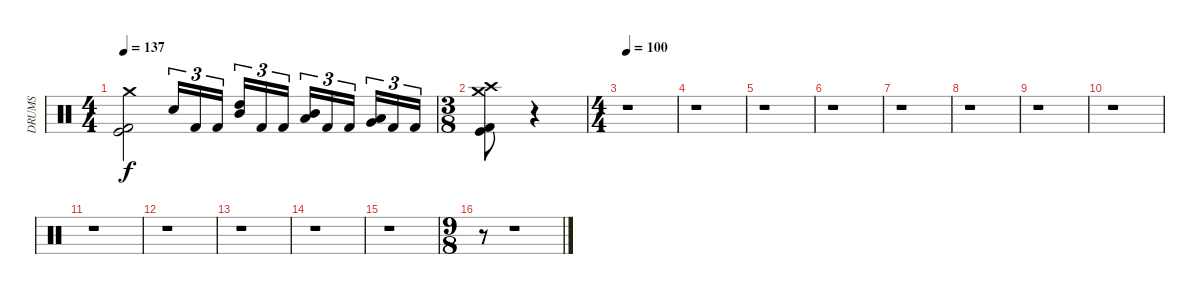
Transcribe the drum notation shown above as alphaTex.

\track ("DRUMS" "DRUMS") {instrument percussion}
\staff {score}
\articulation defaults
\ts (4 4)
\tempo 137
\clef neutral
\ks c
("Crash medium (hit)" "Kick (hit)" "Kick (hit) 2").2{dy f} "Snare (hit) 2".16{tu (3 2)} "Kick (hit) 2".16{tu (3 2)} "Kick (hit) 2".16{tu (3 2)} ("High Tom (hit)" "Mid Tom (hit)").16{tu (3 2)} "Kick (hit) 2".16{tu (3 2)} "Kick (hit) 2".16{tu (3 2)} ("Mid Tom (hit)" "Low Tom (hit)").16{tu (3 2)} "Kick (hit) 2".16{tu (3 2)} "Kick (hit) 2".16{tu (3 2)} ("Low Tom (hit)" "Very Low Tom (hit)").16{tu (3 2)} "Kick (hit) 2".16{tu (3 2)} "Kick (hit) 2".16{tu (3 2)} |
\ts (3 8)
("Crash medium (hit)" "Crash high (hit)" "Kick (hit)" "Kick (hit) 2").8 r.4 |
\ts (4 4)
\tempo 100
r.1 |
r.1 |
r.1 |
r.1 |
r.1 |
r.1 |
r.1 |
r.1 |
r.1 |
r.1 |
r.1 |
r.1 |
r.1 |
\ts (9 8)
r.8 r.1
